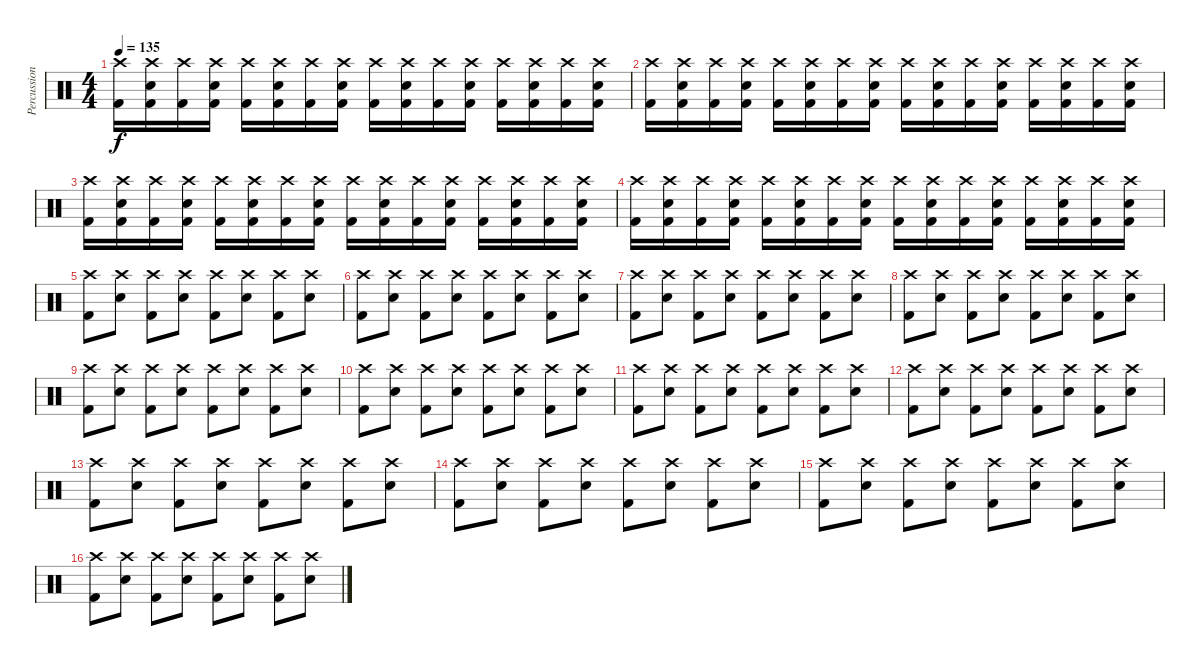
\track ("Percussion" "Percussion") {instrument percussion}
\staff {score}
\articulation defaults
\ts (4 4)
\tempo 135
\clef neutral
\ks c
("Crash high (hit)" "Kick (hit) 2").16{dy f} ("Crash high (hit)" "Electric Snare (hit)" "Kick (hit) 2").16 ("Crash high (hit)" "Kick (hit) 2").16 ("Crash high (hit)" "Electric Snare (hit)" "Kick (hit) 2").16 ("Crash high (hit)" "Kick (hit) 2").16 ("Crash high (hit)" "Electric Snare (hit)" "Kick (hit) 2").16 ("Crash high (hit)" "Kick (hit) 2").16 ("Crash high (hit)" "Electric Snare (hit)" "Kick (hit) 2").16 ("Crash high (hit)" "Kick (hit) 2").16 ("Crash high (hit)" "Electric Snare (hit)" "Kick (hit) 2").16 ("Crash high (hit)" "Kick (hit) 2").16 ("Crash high (hit)" "Electric Snare (hit)" "Kick (hit) 2").16 ("Crash high (hit)" "Kick (hit) 2").16 ("Crash high (hit)" "Electric Snare (hit)" "Kick (hit) 2").16 ("Crash high (hit)" "Kick (hit) 2").16 ("Crash high (hit)" "Electric Snare (hit)" "Kick (hit) 2").16 |
("Crash high (hit)" "Kick (hit) 2").16 ("Crash high (hit)" "Electric Snare (hit)" "Kick (hit) 2").16 ("Crash high (hit)" "Kick (hit) 2").16 ("Crash high (hit)" "Electric Snare (hit)" "Kick (hit) 2").16 ("Crash high (hit)" "Kick (hit) 2").16 ("Crash high (hit)" "Electric Snare (hit)" "Kick (hit) 2").16 ("Crash high (hit)" "Kick (hit) 2").16 ("Crash high (hit)" "Electric Snare (hit)" "Kick (hit) 2").16 ("Crash high (hit)" "Kick (hit) 2").16 ("Crash high (hit)" "Electric Snare (hit)" "Kick (hit) 2").16 ("Crash high (hit)" "Kick (hit) 2").16 ("Crash high (hit)" "Electric Snare (hit)" "Kick (hit) 2").16 ("Crash high (hit)" "Kick (hit) 2").16 ("Crash high (hit)" "Electric Snare (hit)" "Kick (hit) 2").16 ("Crash high (hit)" "Kick (hit) 2").16 ("Crash high (hit)" "Electric Snare (hit)" "Kick (hit) 2").16 |
("Crash high (hit)" "Kick (hit) 2").16 ("Crash high (hit)" "Electric Snare (hit)" "Kick (hit) 2").16 ("Crash high (hit)" "Kick (hit) 2").16 ("Crash high (hit)" "Electric Snare (hit)" "Kick (hit) 2").16 ("Crash high (hit)" "Kick (hit) 2").16 ("Crash high (hit)" "Electric Snare (hit)" "Kick (hit) 2").16 ("Crash high (hit)" "Kick (hit) 2").16 ("Crash high (hit)" "Electric Snare (hit)" "Kick (hit) 2").16 ("Crash high (hit)" "Kick (hit) 2").16 ("Crash high (hit)" "Electric Snare (hit)" "Kick (hit) 2").16 ("Crash high (hit)" "Kick (hit) 2").16 ("Crash high (hit)" "Electric Snare (hit)" "Kick (hit) 2").16 ("Crash high (hit)" "Kick (hit) 2").16 ("Crash high (hit)" "Electric Snare (hit)" "Kick (hit) 2").16 ("Crash high (hit)" "Kick (hit) 2").16 ("Crash high (hit)" "Electric Snare (hit)" "Kick (hit) 2").16 |
("Crash high (hit)" "Kick (hit) 2").16 ("Crash high (hit)" "Electric Snare (hit)" "Kick (hit) 2").16 ("Crash high (hit)" "Kick (hit) 2").16 ("Crash high (hit)" "Electric Snare (hit)" "Kick (hit) 2").16 ("Crash high (hit)" "Kick (hit) 2").16 ("Crash high (hit)" "Electric Snare (hit)" "Kick (hit) 2").16 ("Crash high (hit)" "Kick (hit) 2").16 ("Crash high (hit)" "Electric Snare (hit)" "Kick (hit) 2").16 ("Crash high (hit)" "Kick (hit) 2").16 ("Crash high (hit)" "Electric Snare (hit)" "Kick (hit) 2").16 ("Crash high (hit)" "Kick (hit) 2").16 ("Crash high (hit)" "Electric Snare (hit)" "Kick (hit) 2").16 ("Crash high (hit)" "Kick (hit) 2").16 ("Crash high (hit)" "Electric Snare (hit)" "Kick (hit) 2").16 ("Crash high (hit)" "Kick (hit) 2").16 ("Crash high (hit)" "Electric Snare (hit)" "Kick (hit) 2").16 |
("Crash high (hit)" "Kick (hit) 2").8 ("Crash high (hit)" "Electric Snare (hit)").8 ("Crash high (hit)" "Kick (hit) 2").8 ("Crash high (hit)" "Electric Snare (hit)").8 ("Crash high (hit)" "Kick (hit) 2").8 ("Crash high (hit)" "Electric Snare (hit)").8 ("Crash high (hit)" "Kick (hit) 2").8 ("Crash high (hit)" "Electric Snare (hit)").8 |
("Crash high (hit)" "Kick (hit) 2").8 ("Crash high (hit)" "Electric Snare (hit)").8 ("Crash high (hit)" "Kick (hit) 2").8 ("Crash high (hit)" "Electric Snare (hit)").8 ("Crash high (hit)" "Kick (hit) 2").8 ("Crash high (hit)" "Electric Snare (hit)").8 ("Crash high (hit)" "Kick (hit) 2").8 ("Crash high (hit)" "Electric Snare (hit)").8 |
("Crash high (hit)" "Kick (hit) 2").8 ("Crash high (hit)" "Electric Snare (hit)").8 ("Crash high (hit)" "Kick (hit) 2").8 ("Crash high (hit)" "Electric Snare (hit)").8 ("Crash high (hit)" "Kick (hit) 2").8 ("Crash high (hit)" "Electric Snare (hit)").8 ("Crash high (hit)" "Kick (hit) 2").8 ("Crash high (hit)" "Electric Snare (hit)").8 |
("Crash high (hit)" "Kick (hit) 2").8 ("Crash high (hit)" "Electric Snare (hit)").8 ("Crash high (hit)" "Kick (hit) 2").8 ("Crash high (hit)" "Electric Snare (hit)").8 ("Crash high (hit)" "Kick (hit) 2").8 ("Crash high (hit)" "Electric Snare (hit)").8 ("Crash high (hit)" "Kick (hit) 2").8 ("Crash high (hit)" "Electric Snare (hit)").8 |
("Crash high (hit)" "Kick (hit) 2").8 ("Crash high (hit)" "Electric Snare (hit)").8 ("Crash high (hit)" "Kick (hit) 2").8 ("Crash high (hit)" "Electric Snare (hit)").8 ("Crash high (hit)" "Kick (hit) 2").8 ("Crash high (hit)" "Electric Snare (hit)").8 ("Crash high (hit)" "Kick (hit) 2").8 ("Crash high (hit)" "Electric Snare (hit)").8 |
("Crash high (hit)" "Kick (hit) 2").8 ("Crash high (hit)" "Electric Snare (hit)").8 ("Crash high (hit)" "Kick (hit) 2").8 ("Crash high (hit)" "Electric Snare (hit)").8 ("Crash high (hit)" "Kick (hit) 2").8 ("Crash high (hit)" "Electric Snare (hit)").8 ("Crash high (hit)" "Kick (hit) 2").8 ("Crash high (hit)" "Electric Snare (hit)").8 |
("Crash high (hit)" "Kick (hit) 2").8 ("Crash high (hit)" "Electric Snare (hit)").8 ("Crash high (hit)" "Kick (hit) 2").8 ("Crash high (hit)" "Electric Snare (hit)").8 ("Crash high (hit)" "Kick (hit) 2").8 ("Crash high (hit)" "Electric Snare (hit)").8 ("Crash high (hit)" "Kick (hit) 2").8 ("Crash high (hit)" "Electric Snare (hit)").8 |
("Crash high (hit)" "Kick (hit) 2").8 ("Crash high (hit)" "Electric Snare (hit)").8 ("Crash high (hit)" "Kick (hit) 2").8 ("Crash high (hit)" "Electric Snare (hit)").8 ("Crash high (hit)" "Kick (hit) 2").8 ("Crash high (hit)" "Electric Snare (hit)").8 ("Crash high (hit)" "Kick (hit) 2").8 ("Crash high (hit)" "Electric Snare (hit)").8 |
("Crash high (hit)" "Kick (hit) 2").8 ("Crash high (hit)" "Electric Snare (hit)").8 ("Crash high (hit)" "Kick (hit) 2").8 ("Crash high (hit)" "Electric Snare (hit)").8 ("Crash high (hit)" "Kick (hit) 2").8 ("Crash high (hit)" "Electric Snare (hit)").8 ("Crash high (hit)" "Kick (hit) 2").8 ("Crash high (hit)" "Electric Snare (hit)").8 |
("Crash high (hit)" "Kick (hit) 2").8 ("Crash high (hit)" "Electric Snare (hit)").8 ("Crash high (hit)" "Kick (hit) 2").8 ("Crash high (hit)" "Electric Snare (hit)").8 ("Crash high (hit)" "Kick (hit) 2").8 ("Crash high (hit)" "Electric Snare (hit)").8 ("Crash high (hit)" "Kick (hit) 2").8 ("Crash high (hit)" "Electric Snare (hit)").8 |
("Crash high (hit)" "Kick (hit) 2").8 ("Crash high (hit)" "Electric Snare (hit)").8 ("Crash high (hit)" "Kick (hit) 2").8 ("Crash high (hit)" "Electric Snare (hit)").8 ("Crash high (hit)" "Kick (hit) 2").8 ("Crash high (hit)" "Electric Snare (hit)").8 ("Crash high (hit)" "Kick (hit) 2").8 ("Crash high (hit)" "Electric Snare (hit)").8 |
("Crash high (hit)" "Kick (hit) 2").8 ("Crash high (hit)" "Electric Snare (hit)").8 ("Crash high (hit)" "Kick (hit) 2").8 ("Crash high (hit)" "Electric Snare (hit)").8 ("Crash high (hit)" "Kick (hit) 2").8 ("Crash high (hit)" "Electric Snare (hit)").8 ("Crash high (hit)" "Kick (hit) 2").8 ("Crash high (hit)" "Electric Snare (hit)").8
